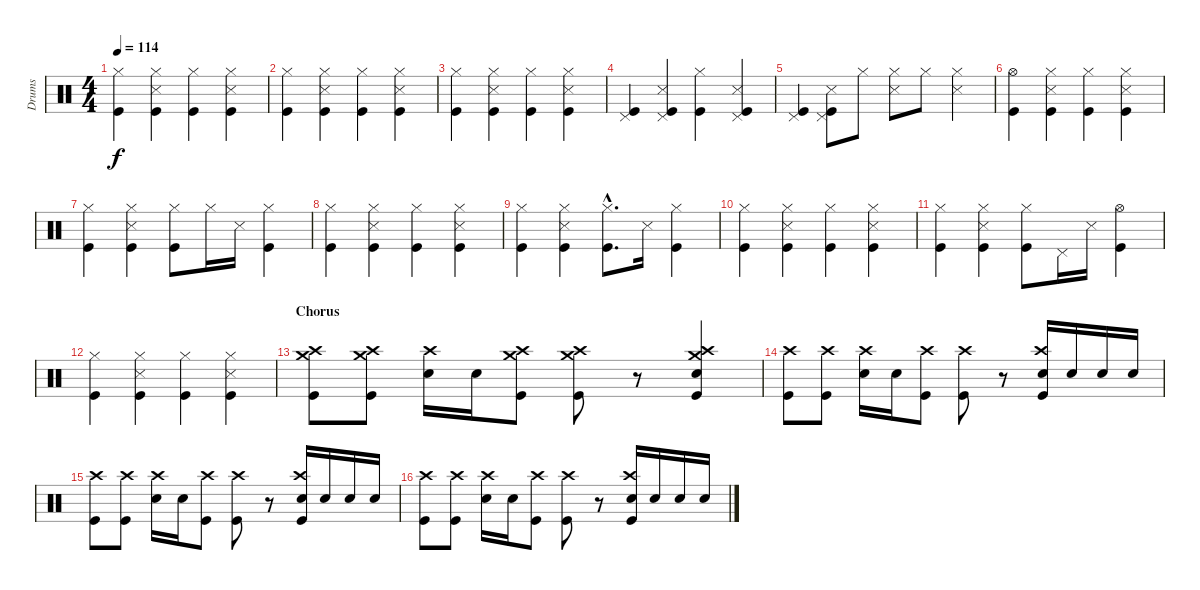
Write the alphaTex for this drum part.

\track ("Drums" "Drums") {instrument percussion}
\staff {score}
\articulation defaults
\ts (4 4)
\tempo 114
\clef neutral
\ks c
("Hi-Hat (closed)" "Kick (hit)").4{dy f} ("Hi-Hat (closed)" "Snare (side stick) 3" "Kick (hit)").4 ("Hi-Hat (closed)" "Kick (hit)").4 ("Hi-Hat (closed)" "Snare (side stick) 3" "Kick (hit)").4 |
("Hi-Hat (closed)" "Kick (hit)").4 ("Hi-Hat (closed)" "Snare (side stick) 3" "Kick (hit)").4 ("Hi-Hat (closed)" "Kick (hit)").4 ("Hi-Hat (closed)" "Snare (side stick) 3" "Kick (hit)").4 |
("Hi-Hat (closed)" "Kick (hit)").4 ("Hi-Hat (closed)" "Snare (side stick) 3" "Kick (hit)").4 ("Hi-Hat (closed)" "Kick (hit)").4 ("Hi-Hat (closed)" "Snare (side stick) 3" "Kick (hit)").4 |
("Pedal Hi-Hat (hit)" "Kick (hit)").4 ("Pedal Hi-Hat (hit)" "Snare (side stick) 3" "Kick (hit)").4 ("Hi-Hat (closed)" "Kick (hit)").4 ("Pedal Hi-Hat (hit)" "Snare (side stick) 3" "Kick (hit)").4 |
("Pedal Hi-Hat (hit)" "Kick (hit)").4 ("Pedal Hi-Hat (hit)" "Snare (side stick) 3" "Kick (hit)").8 "Hi-Hat (closed)".8 ("Hi-Hat (closed)" "Snare (side stick) 3").8 "Hi-Hat (closed)".8 ("Hi-Hat (closed)" "Snare (side stick) 3").4 |
("Hi-Hat (open)" "Kick (hit)").4 ("Hi-Hat (closed)" "Snare (side stick) 3" "Kick (hit)").4 ("Hi-Hat (closed)" "Kick (hit)").4 ("Hi-Hat (closed)" "Snare (side stick) 3" "Kick (hit)").4 |
("Hi-Hat (closed)" "Kick (hit)").4 ("Hi-Hat (closed)" "Snare (side stick) 3" "Kick (hit)").4 ("Hi-Hat (closed)" "Kick (hit)").8 "Hi-Hat (closed)".16 "Snare (side stick) 3".16 ("Hi-Hat (closed)" "Kick (hit)").4 |
("Hi-Hat (closed)" "Kick (hit)").4 ("Hi-Hat (closed)" "Snare (side stick) 3" "Kick (hit)").4 ("Hi-Hat (closed)" "Kick (hit)").4 ("Hi-Hat (closed)" "Snare (side stick) 3" "Kick (hit)").4 |
("Hi-Hat (closed)" "Kick (hit)").4 ("Hi-Hat (closed)" "Snare (side stick) 3" "Kick (hit)").4 ("Hi-Hat (closed)"{hac} "Kick (hit)"{hac}).8{d} "Snare (side stick) 3".16 ("Hi-Hat (closed)" "Kick (hit)").4 |
("Hi-Hat (closed)" "Kick (hit)").4 ("Hi-Hat (closed)" "Snare (side stick) 3" "Kick (hit)").4 ("Hi-Hat (closed)" "Kick (hit)").4 ("Hi-Hat (closed)" "Snare (side stick) 3" "Kick (hit)").4 |
("Hi-Hat (closed)" "Kick (hit)").4 ("Hi-Hat (closed)" "Snare (side stick) 3" "Kick (hit)").4 ("Hi-Hat (closed)" "Kick (hit)").8 "Pedal Hi-Hat (hit)".16 "Snare (side stick) 3".16 ("Hi-Hat (open)" "Kick (hit)").4 |
("Hi-Hat (closed)" "Kick (hit)").4 ("Hi-Hat (closed)" "Snare (side stick) 3" "Kick (hit)").4 ("Hi-Hat (closed)" "Kick (hit)").4 ("Hi-Hat (closed)" "Snare (side stick) 3" "Kick (hit)").4 |
\section ("" "Chorus")
("Crash high (hit)" "Crash medium (hit)" "Kick (hit)").8 ("Crash high (hit)" "Crash medium (hit)" "Kick (hit)").8 ("Crash high (hit)" "Electric Snare (hit)").16 "Electric Snare (hit)".16 ("Crash high (hit)" "Crash medium (hit)" "Kick (hit)").8 ("Crash high (hit)" "Crash medium (hit)" "Kick (hit)").8 r.8 ("Crash high (hit)" "Crash medium (hit)" "Electric Snare (hit)" "Kick (hit)").4 |
("Crash high (hit)" "Kick (hit)").8 ("Crash high (hit)" "Kick (hit)").8 ("Crash high (hit)" "Electric Snare (hit)").16 "Electric Snare (hit)".16 ("Crash high (hit)" "Kick (hit)").8 ("Crash high (hit)" "Kick (hit)").8 r.8 ("Crash high (hit)" "Electric Snare (hit)" "Kick (hit)").16 "Electric Snare (hit)".16 "Electric Snare (hit)".16 "Electric Snare (hit)".16 |
("Crash high (hit)" "Kick (hit)").8 ("Crash high (hit)" "Kick (hit)").8 ("Crash high (hit)" "Electric Snare (hit)").16 "Electric Snare (hit)".16 ("Crash high (hit)" "Kick (hit)").8 ("Crash high (hit)" "Kick (hit)").8 r.8 ("Crash high (hit)" "Electric Snare (hit)" "Kick (hit)").16 "Electric Snare (hit)".16 "Electric Snare (hit)".16 "Electric Snare (hit)".16 |
("Crash high (hit)" "Kick (hit)").8 ("Crash high (hit)" "Kick (hit)").8 ("Crash high (hit)" "Electric Snare (hit)").16 "Electric Snare (hit)".16 ("Crash high (hit)" "Kick (hit)").8 ("Crash high (hit)" "Kick (hit)").8 r.8 ("Crash high (hit)" "Electric Snare (hit)" "Kick (hit)").16 "Electric Snare (hit)".16 "Electric Snare (hit)".16 "Electric Snare (hit)".16
